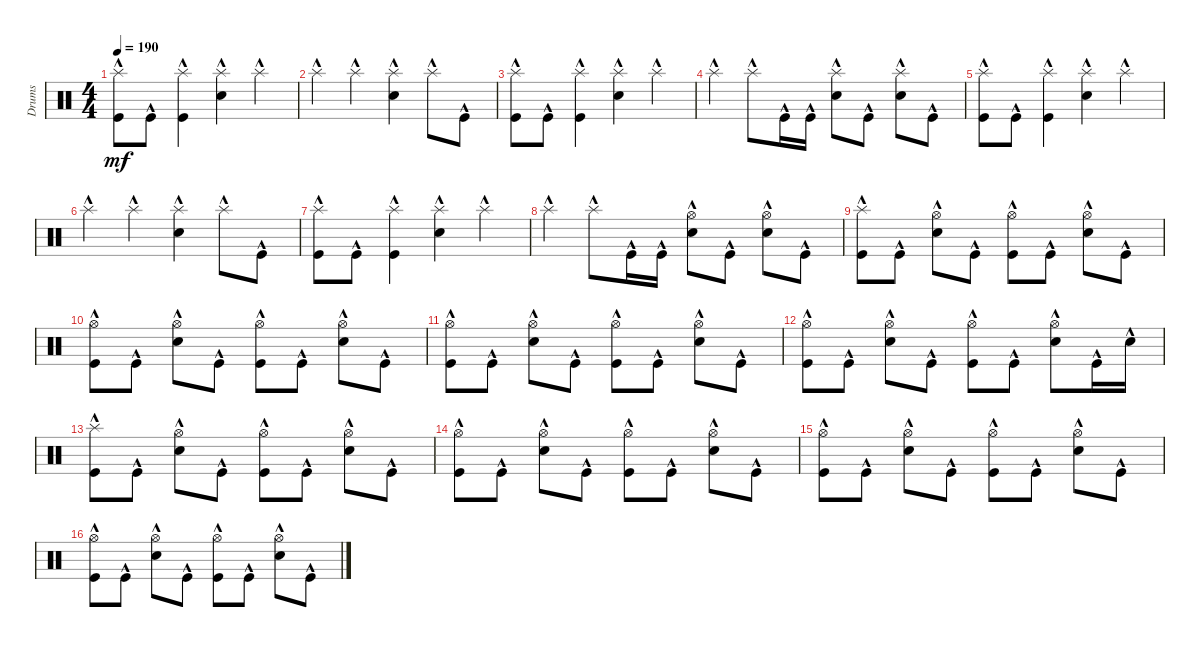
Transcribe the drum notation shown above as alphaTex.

\track ("Drums" "Drums") {instrument percussion}
\staff {score}
\articulation defaults
\ts (4 4)
\tempo 190
\clef neutral
\ks c
("Kick (hit)"{hac} "Splash (hit)"{hac}).8{dy mf} "Kick (hit)"{hac}.8 ("Kick (hit)"{hac} "Splash (hit)"{hac}).4 ("Splash (hit)"{hac} "Snare (hit) 2"{hac}).4 "Splash (hit)"{hac}.4 |
"Splash (hit)"{hac}.4 "Splash (hit)"{hac}.4 ("Splash (hit)"{hac} "Snare (hit) 2"{hac}).4 "Splash (hit)"{hac}.8 "Kick (hit)"{hac}.8 |
("Kick (hit)"{hac} "Splash (hit)"{hac}).8 "Kick (hit)"{hac}.8 ("Kick (hit)"{hac} "Splash (hit)"{hac}).4 ("Splash (hit)"{hac} "Snare (hit) 2"{hac}).4 "Splash (hit)"{hac}.4 |
"Splash (hit)"{hac}.4 "Splash (hit)"{hac}.8 "Kick (hit)"{hac}.16 "Kick (hit)"{hac}.16 ("Snare (hit) 2"{hac} "Splash (hit)"{hac}).8 "Kick (hit)"{hac}.8 ("Snare (hit) 2"{hac} "Splash (hit)"{hac}).8 "Kick (hit)"{hac}.8 |
("Kick (hit)"{hac} "Splash (hit)"{hac}).8 "Kick (hit)"{hac}.8 ("Kick (hit)"{hac} "Splash (hit)"{hac}).4 ("Splash (hit)"{hac} "Snare (hit) 2"{hac}).4 "Splash (hit)"{hac}.4 |
"Splash (hit)"{hac}.4 "Splash (hit)"{hac}.4 ("Splash (hit)"{hac} "Snare (hit) 2"{hac}).4 "Splash (hit)"{hac}.8 "Kick (hit)"{hac}.8 |
("Kick (hit)"{hac} "Splash (hit)"{hac}).8 "Kick (hit)"{hac}.8 ("Kick (hit)"{hac} "Splash (hit)"{hac}).4 ("Splash (hit)"{hac} "Snare (hit) 2"{hac}).4 "Splash (hit)"{hac}.4 |
"Splash (hit)"{hac}.4 "Splash (hit)"{hac}.8 "Kick (hit)"{hac}.16 "Kick (hit)"{hac}.16 ("Snare (hit) 2"{hac} "Hi-Hat (open)"{hac}).8 "Kick (hit)"{hac}.8 ("Snare (hit) 2"{hac} "Hi-Hat (open)"{hac}).8 "Kick (hit)"{hac}.8 |
("Kick (hit)"{hac} "Splash (hit)"{hac}).8 "Kick (hit)"{hac}.8 ("Snare (hit) 2"{hac} "Hi-Hat (open)"{hac}).8 "Kick (hit)"{hac}.8 ("Kick (hit)"{hac} "Hi-Hat (open)"{hac}).8 "Kick (hit)"{hac}.8 ("Snare (hit) 2"{hac} "Hi-Hat (open)"{hac}).8 "Kick (hit)"{hac}.8 |
("Kick (hit)"{hac} "Hi-Hat (open)"{hac}).8 "Kick (hit)"{hac}.8 ("Snare (hit) 2"{hac} "Hi-Hat (open)"{hac}).8 "Kick (hit)"{hac}.8 ("Kick (hit)"{hac} "Hi-Hat (open)"{hac}).8 "Kick (hit)"{hac}.8 ("Snare (hit) 2"{hac} "Hi-Hat (open)"{hac}).8 "Kick (hit)"{hac}.8 |
("Kick (hit)"{hac} "Hi-Hat (open)"{hac}).8 "Kick (hit)"{hac}.8 ("Snare (hit) 2"{hac} "Hi-Hat (open)"{hac}).8 "Kick (hit)"{hac}.8 ("Kick (hit)"{hac} "Hi-Hat (open)"{hac}).8 "Kick (hit)"{hac}.8 ("Snare (hit) 2"{hac} "Hi-Hat (open)"{hac}).8 "Kick (hit)"{hac}.8 |
("Kick (hit)"{hac} "Hi-Hat (open)"{hac}).8 "Kick (hit)"{hac}.8 ("Snare (hit) 2"{hac} "Hi-Hat (open)"{hac}).8 "Kick (hit)"{hac}.8 ("Kick (hit)"{hac} "Hi-Hat (open)"{hac}).8 "Kick (hit)"{hac}.8 ("Snare (hit) 2"{hac} "Hi-Hat (open)"{hac}).8 "Kick (hit)"{hac}.16 "Snare (hit) 2"{hac}.16 |
("Kick (hit)"{hac} "Splash (hit)"{hac}).8 "Kick (hit)"{hac}.8 ("Snare (hit) 2"{hac} "Hi-Hat (open)"{hac}).8 "Kick (hit)"{hac}.8 ("Kick (hit)"{hac} "Hi-Hat (open)"{hac}).8 "Kick (hit)"{hac}.8 ("Snare (hit) 2"{hac} "Hi-Hat (open)"{hac}).8 "Kick (hit)"{hac}.8 |
("Kick (hit)"{hac} "Hi-Hat (open)"{hac}).8 "Kick (hit)"{hac}.8 ("Snare (hit) 2"{hac} "Hi-Hat (open)"{hac}).8 "Kick (hit)"{hac}.8 ("Kick (hit)"{hac} "Hi-Hat (open)"{hac}).8 "Kick (hit)"{hac}.8 ("Snare (hit) 2"{hac} "Hi-Hat (open)"{hac}).8 "Kick (hit)"{hac}.8 |
("Kick (hit)"{hac} "Hi-Hat (open)"{hac}).8 "Kick (hit)"{hac}.8 ("Snare (hit) 2"{hac} "Hi-Hat (open)"{hac}).8 "Kick (hit)"{hac}.8 ("Kick (hit)"{hac} "Hi-Hat (open)"{hac}).8 "Kick (hit)"{hac}.8 ("Snare (hit) 2"{hac} "Hi-Hat (open)"{hac}).8 "Kick (hit)"{hac}.8 |
("Kick (hit)"{hac} "Hi-Hat (open)"{hac}).8 "Kick (hit)"{hac}.8 ("Snare (hit) 2"{hac} "Hi-Hat (open)"{hac}).8 "Kick (hit)"{hac}.8 ("Kick (hit)"{hac} "Hi-Hat (open)"{hac}).8 "Kick (hit)"{hac}.8 ("Snare (hit) 2"{hac} "Hi-Hat (open)"{hac}).8 "Kick (hit)"{hac}.8
